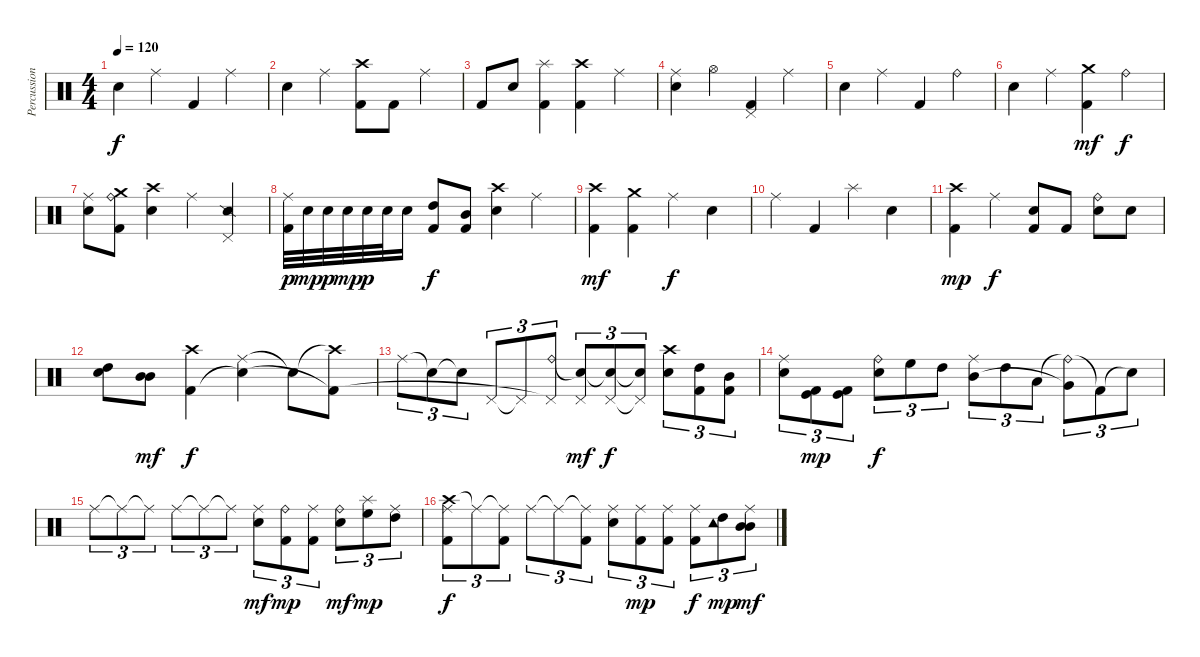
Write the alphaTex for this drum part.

\track ("Percussioni" "Percussion") {instrument percussion}
\staff {score}
\articulation defaults
\ts (4 4)
\tempo 120
\clef neutral
\ks c "Electric Snare (hit)".4{dy f} "Ride (middle)".4 "Kick (hit) 2".4 "Ride (middle)".4
|
"Electric Snare (hit)".4 "Ride (middle)".4 ("Crash high (hit)" "Kick (hit) 2").8 "Kick (hit) 2".8 "Ride (middle)".4 |
"Kick (hit) 2".8 "Electric Snare (hit)".8 ("Splash (hit)" "Kick (hit) 2").4 ("Crash high (hit)" "Kick (hit) 2").4 "Ride (middle)".4 |
("Ride (middle)" "Electric Snare (hit)").4 "Hi-Hat (open)".4 ("Pedal Hi-Hat (hit)" "Kick (hit) 2").4 "Ride (middle)".4 |
"Electric Snare (hit)".4 "Ride (middle)".4 "Kick (hit) 2".4 "Ride (bell)".4 |
"Electric Snare (hit)".4 "Ride (middle)".4 ("Crash medium (hit)" "Kick (hit) 2").4{dy mf} "Ride (bell)".4{dy f} |
("Ride (middle)" "Electric Snare (hit)").8 ("Crash medium (hit)" "Ride (bell)" "Kick (hit) 2").8 ("Crash high (hit)" "Electric Snare (hit)").4 "Ride (middle)".4 ("Snare (side stick) 2" "Pedal Hi-Hat (hit)").4 |
("Ride (middle)" "Kick (hit) 2").32{dy p} "Electric Snare (hit)".32{dy mp} "Electric Snare (hit)".32{dy p} "Electric Snare (hit)".32{dy mp} "Electric Snare (hit)".32{dy p} "Electric Snare (hit)".32 "Electric Snare (hit)".16 ("High Tom (hit)" "Kick (hit) 2").8{bd 120 dy f} ("Mid Tom (hit)" "Kick (hit) 2").8{bd 120} ("Crash high (hit)" "Electric Snare (hit)").4 "Ride (middle)".4 |
("Crash high (hit)" "Kick (hit) 2").4{dy mf} ("Crash medium (hit)" "Kick (hit) 2").4 "Ride (middle)".4{dy f} "Electric Snare (hit)".4 |
"Ride (middle)".4 "Kick (hit) 2".4 "Splash (hit)".4 "Electric Snare (hit)".4 |
("Crash high (hit)" "Kick (hit) 2").4{dy mp} "Ride (middle)".4{dy f} ("Electric Snare (hit)" "Kick (hit) 2").8 "Kick (hit) 2".8 ("Ride (bell)" "Electric Snare (hit)").8 "Electric Snare (hit)".8 |
("Electric Snare (hit)" "High Tom (hit)").8{bd 120} ("Mid Tom (hit)" "Mid Tom (hit)").8{dy mf} ("Crash high (hit)" "Kick (hit) 2").4{dy f} ("Ride (middle)" "Snare (hit)"{t}).4 "Electric Snare (hit)"{t}.8 ("Crash high (hit)"{t} "Kick (hit) 2"{t}).8 |
"Ride (middle)".8{tu (3 2)} "Snare (hit)"{t}.8{tu (3 2)} "Snare (hit)"{t}.8{tu (3 2)} "Pedal Hi-Hat (hit)".8{tu (3 2)} "Pedal Hi-Hat (hit)"{t}.8{tu (3 2)} ("Ride (bell)" "Pedal Hi-Hat (hit)"{t}).8{tu (3 2)} ("Snare (hit)"{t} "Pedal Hi-Hat (hit)").8{tu (3 2) dy mf} ("Snare (hit)"{t} "Pedal Hi-Hat (hit)").8{tu (3 2) dy f} ("Snare (hit)"{t} "Pedal Hi-Hat (hit)"{t}).8{tu (3 2)} ("Crash high (hit)" "Electric Snare (hit)").8{tu (3 2) bd 240} ("High Tom (hit)" "Kick (hit) 2").8{tu (3 2) bd 120} ("Mid Tom (hit)" "Kick (hit) 2").8{tu (3 2) bd 120} |
("Ride (middle)" "Electric Snare (hit)").8{tu (3 2)} ("Kick (hit)" "Kick (hit) 2").8{tu (3 2) bd 120 dy mp} ("Kick (hit)" "Kick (hit) 2").8{tu (3 2) bd 120} ("Ride (bell)" "Electric Snare (hit)").8{tu (3 2) dy f} "High Floor Tom (hit)".8{tu (3 2)} "High Tom (hit)".8{tu (3 2)} ("Ride (middle)" "Mid Tom (hit)").8{tu (3 2)} "High Tom (hit)".8{tu (3 2)} "Low Tom (hit)".8{tu (3 2)} ("Ride (bell)"{t} "Very Low Tom (hit)"{t}).8{tu (3 2)} "Kick (hit) 2"{t}.8{tu (3 2)} "Electric Snare (hit)"{t}.8{tu (3 2)} |
"Ride (middle)".8{tu (3 2)} "Ride (middle)"{t}.8{tu (3 2)} "Ride (middle)"{t}.8{tu (3 2)} "Ride (middle)".8{tu (3 2)} "Ride (middle)"{t}.8{tu (3 2)} "Ride (middle)"{t}.8{tu (3 2)} ("Ride (middle)" "Electric Snare (hit)").8{tu (3 2) dy mf} ("Ride (bell)" "Kick (hit) 2").8{tu (3 2) dy mp} ("Ride (middle)" "Kick (hit) 2").8{tu (3 2)} ("Ride (bell)" "Electric Snare (hit)").8{tu (3 2) dy mf} ("Splash (hit)" "High Floor Tom (hit)").8{tu (3 2) dy mp} ("Ride (middle)" "High Tom (hit)").8{tu (3 2)} |
("Crash high (hit)" "Kick (hit) 2" "Ride (middle)").8{tu (3 2) dy f} "Ride (middle)"{t}.8{tu (3 2)} ("Ride (middle)"{t} "Kick (hit) 2").8{tu (3 2)} "Ride (middle)".8{tu (3 2)} "Ride (middle)"{t}.8{tu (3 2)} ("Ride (middle)"{t} "Kick (hit) 2").8{tu (3 2)} ("Ride (middle)" "Electric Snare (hit)").8{tu (3 2)} ("Ride (middle)" "Kick (hit) 2").8{tu (3 2) dy mp} ("Ride (middle)" "Kick (hit) 2").8{tu (3 2)} ("Ride (middle)" "Kick (hit) 2").8{tu (3 2) dy f} ("Tambourine (hit)" "High Tom (hit)").8{tu (3 2) dy mp} ("Ride (middle)" "Mid Tom (hit)" "Mid Tom (hit)").8{tu (3 2) dy mf}
